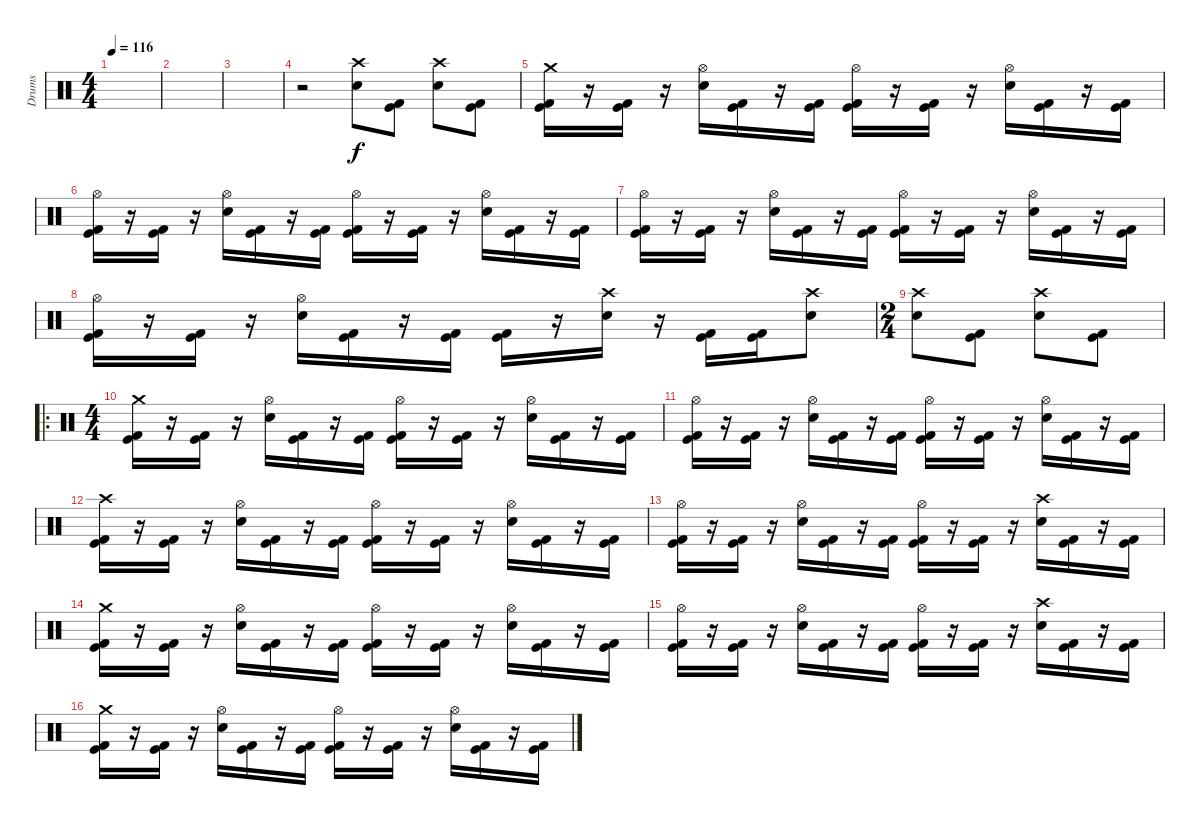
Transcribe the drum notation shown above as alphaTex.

\track ("Drums" "Drums") {instrument percussion}
\staff {score}
\articulation defaults
\ts (4 4)
\tempo 116
\clef neutral
\ks c
|
|
|
r.2 ("Crash high (hit)" "Snare (hit) 2").8 ("Kick (hit)" "Kick (hit) 2").8 ("Crash high (hit)" "Snare (hit) 2").8 ("Kick (hit)" "Kick (hit) 2").8 |
("Crash medium (hit)" "Kick (hit)" "Kick (hit) 2").16 r.16 ("Kick (hit)" "Kick (hit) 2").16 r.16 ("Hi-Hat (open)" "Snare (hit) 2").16 ("Kick (hit)" "Kick (hit) 2").16 r.16 ("Kick (hit)" "Kick (hit) 2").16 ("Hi-Hat (open)" "Kick (hit)" "Kick (hit) 2").16 r.16 ("Kick (hit)" "Kick (hit) 2").16 r.16 ("Hi-Hat (open)" "Snare (hit) 2").16 ("Kick (hit)" "Kick (hit) 2").16 r.16 ("Kick (hit)" "Kick (hit) 2").16 |
("Hi-Hat (open)" "Kick (hit)" "Kick (hit) 2").16 r.16 ("Kick (hit)" "Kick (hit) 2").16 r.16 ("Hi-Hat (open)" "Snare (hit) 2").16 ("Kick (hit)" "Kick (hit) 2").16 r.16 ("Kick (hit)" "Kick (hit) 2").16 ("Hi-Hat (open)" "Kick (hit)" "Kick (hit) 2").16 r.16 ("Kick (hit)" "Kick (hit) 2").16 r.16 ("Hi-Hat (open)" "Snare (hit) 2").16 ("Kick (hit)" "Kick (hit) 2").16 r.16 ("Kick (hit)" "Kick (hit) 2").16 |
("Hi-Hat (open)" "Kick (hit)" "Kick (hit) 2").16 r.16 ("Kick (hit)" "Kick (hit) 2").16 r.16 ("Hi-Hat (open)" "Snare (hit) 2").16 ("Kick (hit)" "Kick (hit) 2").16 r.16 ("Kick (hit)" "Kick (hit) 2").16 ("Hi-Hat (open)" "Kick (hit)" "Kick (hit) 2").16 r.16 ("Kick (hit)" "Kick (hit) 2").16 r.16 ("Hi-Hat (open)" "Snare (hit) 2").16 ("Kick (hit)" "Kick (hit) 2").16 r.16 ("Kick (hit)" "Kick (hit) 2").16 |
("Hi-Hat (open)" "Kick (hit)" "Kick (hit) 2").16 r.16 ("Kick (hit)" "Kick (hit) 2").16 r.16 ("Hi-Hat (open)" "Snare (hit) 2").16 ("Kick (hit)" "Kick (hit) 2").16 r.16 ("Kick (hit)" "Kick (hit) 2").16 ("Kick (hit)" "Kick (hit) 2").16 r.16 ("Crash high (hit)" "Snare (hit) 2").16 r.16 ("Kick (hit)" "Kick (hit) 2").16 ("Kick (hit)" "Kick (hit) 2").16 ("Crash high (hit)" "Snare (hit) 2").8 |
\ts (2 4)
("Crash high (hit)" "Snare (hit) 2").8 ("Kick (hit)" "Kick (hit) 2").8 ("Crash high (hit)" "Snare (hit) 2").8 ("Kick (hit)" "Kick (hit) 2").8 |
\ro
\ts (4 4)
("Crash medium (hit)" "Kick (hit)" "Kick (hit) 2").16 r.16 ("Kick (hit)" "Kick (hit) 2").16 r.16 ("Hi-Hat (open)" "Snare (hit) 2").16 ("Kick (hit)" "Kick (hit) 2").16 r.16 ("Kick (hit)" "Kick (hit) 2").16 ("Hi-Hat (open)" "Kick (hit)" "Kick (hit) 2").16 r.16 ("Kick (hit)" "Kick (hit) 2").16 r.16 ("Hi-Hat (open)" "Snare (hit) 2").16 ("Kick (hit)" "Kick (hit) 2").16 r.16 ("Kick (hit)" "Kick (hit) 2").16 |
("Hi-Hat (open)" "Kick (hit)" "Kick (hit) 2").16 r.16 ("Kick (hit)" "Kick (hit) 2").16 r.16 ("Hi-Hat (open)" "Snare (hit) 2").16 ("Kick (hit)" "Kick (hit) 2").16 r.16 ("Kick (hit)" "Kick (hit) 2").16 ("Hi-Hat (open)" "Kick (hit)" "Kick (hit) 2").16 r.16 ("Kick (hit)" "Kick (hit) 2").16 r.16 ("Hi-Hat (open)" "Snare (hit) 2").16 ("Kick (hit)" "Kick (hit) 2").16 r.16 ("Kick (hit)" "Kick (hit) 2").16 |
("Crash high (hit)" "Kick (hit)" "Kick (hit) 2").16 r.16 ("Kick (hit)" "Kick (hit) 2").16 r.16 ("Hi-Hat (open)" "Snare (hit) 2").16 ("Kick (hit)" "Kick (hit) 2").16 r.16 ("Kick (hit)" "Kick (hit) 2").16 ("Hi-Hat (open)" "Kick (hit)" "Kick (hit) 2").16 r.16 ("Kick (hit)" "Kick (hit) 2").16 r.16 ("Hi-Hat (open)" "Snare (hit) 2").16 ("Kick (hit)" "Kick (hit) 2").16 r.16 ("Kick (hit)" "Kick (hit) 2").16 |
("Hi-Hat (open)" "Kick (hit)" "Kick (hit) 2").16 r.16 ("Kick (hit)" "Kick (hit) 2").16 r.16 ("Hi-Hat (open)" "Snare (hit) 2").16 ("Kick (hit)" "Kick (hit) 2").16 r.16 ("Kick (hit)" "Kick (hit) 2").16 ("Hi-Hat (open)" "Kick (hit)" "Kick (hit) 2").16 r.16 ("Kick (hit)" "Kick (hit) 2").16 r.16 ("Crash high (hit)" "Snare (hit) 2").16 ("Kick (hit)" "Kick (hit) 2").16 r.16 ("Kick (hit)" "Kick (hit) 2").16 |
("Crash medium (hit)" "Kick (hit)" "Kick (hit) 2").16 r.16 ("Kick (hit)" "Kick (hit) 2").16 r.16 ("Hi-Hat (open)" "Snare (hit) 2").16 ("Kick (hit)" "Kick (hit) 2").16 r.16 ("Kick (hit)" "Kick (hit) 2").16 ("Hi-Hat (open)" "Kick (hit)" "Kick (hit) 2").16 r.16 ("Kick (hit)" "Kick (hit) 2").16 r.16 ("Hi-Hat (open)" "Snare (hit) 2").16 ("Kick (hit)" "Kick (hit) 2").16 r.16 ("Kick (hit)" "Kick (hit) 2").16 |
("Hi-Hat (open)" "Kick (hit)" "Kick (hit) 2").16 r.16 ("Kick (hit)" "Kick (hit) 2").16 r.16 ("Hi-Hat (open)" "Snare (hit) 2").16 ("Kick (hit)" "Kick (hit) 2").16 r.16 ("Kick (hit)" "Kick (hit) 2").16 ("Hi-Hat (open)" "Kick (hit)" "Kick (hit) 2").16 r.16 ("Kick (hit)" "Kick (hit) 2").16 r.16 ("Crash high (hit)" "Snare (hit) 2").16 ("Kick (hit)" "Kick (hit) 2").16 r.16 ("Kick (hit)" "Kick (hit) 2").16 |
("Crash medium (hit)" "Kick (hit)" "Kick (hit) 2").16 r.16 ("Kick (hit)" "Kick (hit) 2").16 r.16 ("Hi-Hat (open)" "Snare (hit) 2").16 ("Kick (hit)" "Kick (hit) 2").16 r.16 ("Kick (hit)" "Kick (hit) 2").16 ("Hi-Hat (open)" "Kick (hit)" "Kick (hit) 2").16 r.16 ("Kick (hit)" "Kick (hit) 2").16 r.16 ("Hi-Hat (open)" "Snare (hit) 2").16 ("Kick (hit)" "Kick (hit) 2").16 r.16 ("Kick (hit)" "Kick (hit) 2").16
